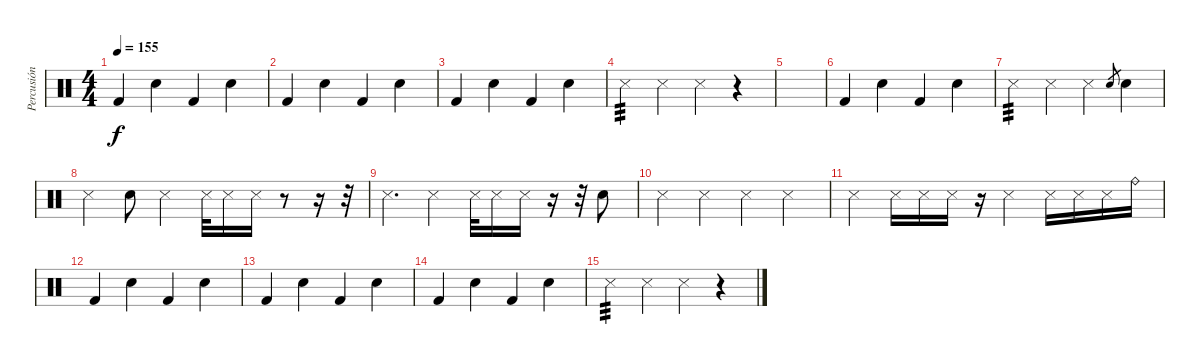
\track ("Percusión" "Percusión") {instrument percussion}
\staff {score}
\articulation defaults
\ts (4 4)
\tempo 155
\clef neutral
\ks c "Kick (hit) 2".4{dy f} "Snare (hit) 2".4 "Kick (hit) 2".4 "Snare (hit) 2".4
|
"Kick (hit) 2".4 "Snare (hit) 2".4 "Kick (hit) 2".4 "Snare (hit) 2".4 |
"Kick (hit) 2".4 "Snare (hit) 2".4 "Kick (hit) 2".4 "Snare (hit) 2".4 |
"Snare (side stick) 3".4{tp 3} "Snare (side stick) 3".4 "Snare (side stick) 3".4 r.4 |
|
"Kick (hit) 2".4 "Snare (hit) 2".4 "Kick (hit) 2".4 "Snare (hit) 2".4 |
"Snare (side stick) 3".4{tp 3} "Snare (side stick) 3".4 "Snare (side stick) 3".4 "Snare (hit) 2".8{gr} "Snare (hit) 2".4 |
"Snare (side stick) 3".4 "Snare (hit) 2".8 "Snare (side stick) 3".4 "Snare (side stick) 3".32 "Snare (side stick) 3".16 "Snare (side stick) 3".16 r.8 r.16 r.32 |
"Snare (side stick) 3".4{d} "Snare (side stick) 3".4 "Snare (side stick) 3".32 "Snare (side stick) 3".16 "Snare (side stick) 3".16 r.16 r.32 "Snare (hit) 2".8 |
"Snare (side stick) 3".4 "Snare (side stick) 3".4 "Snare (side stick) 3".4 "Snare (side stick) 3".4 |
"Snare (side stick) 3".4 "Snare (side stick) 3".16 "Snare (side stick) 3".16 "Snare (side stick) 3".16 r.16 "Snare (side stick) 3".4 "Snare (side stick) 3".16 "Snare (side stick) 3".16 "Snare (side stick) 3".16 "Ride (bell)".16 |
"Kick (hit) 2".4 "Snare (hit) 2".4 "Kick (hit) 2".4 "Snare (hit) 2".4 |
"Kick (hit) 2".4 "Snare (hit) 2".4 "Kick (hit) 2".4 "Snare (hit) 2".4 |
"Kick (hit) 2".4 "Snare (hit) 2".4 "Kick (hit) 2".4 "Snare (hit) 2".4 |
"Snare (side stick) 3".4{tp 3} "Snare (side stick) 3".4 "Snare (side stick) 3".4 r.4
